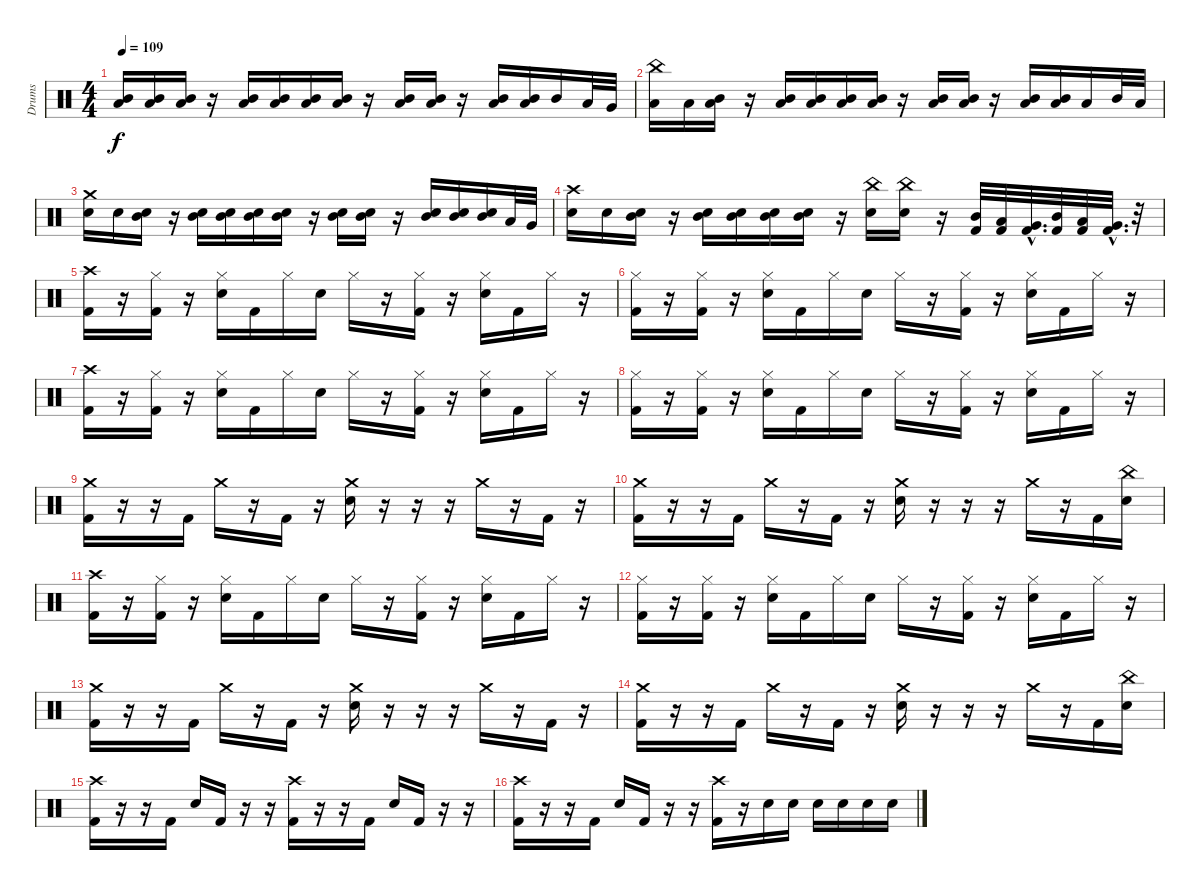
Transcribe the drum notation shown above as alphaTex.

\track ("Drums" "Drums") {instrument percussion}
\staff {score}
\articulation defaults
\ts (4 4)
\tempo 109
\clef neutral
\ks c
("Mid Tom (hit)" "Low Tom (hit)").16{dy f} ("Mid Tom (hit)" "Low Tom (hit)").16 ("Mid Tom (hit)" "Low Tom (hit)").16 r.16 ("Mid Tom (hit)" "Low Tom (hit)").16 ("Mid Tom (hit)" "Low Tom (hit)").16 ("Mid Tom (hit)" "Low Tom (hit)").16 ("Mid Tom (hit)" "Low Tom (hit)").16 r.16 ("Mid Tom (hit)" "Low Tom (hit)").16 ("Mid Tom (hit)" "Low Tom (hit)").16 r.16 ("Mid Tom (hit)" "Low Tom (hit)").16 ("Mid Tom (hit)" "Low Tom (hit)").16 "Mid Tom (hit)".16 "Low Tom (hit)".32 "Very Low Tom (hit)".32 |
("China (hit)" "Low Tom (hit)").16 "Low Tom (hit)".16 ("Mid Tom (hit)" "Low Tom (hit)").16 r.16 ("Mid Tom (hit)" "Low Tom (hit)").16 ("Mid Tom (hit)" "Low Tom (hit)").16 ("Mid Tom (hit)" "Low Tom (hit)").16 ("Mid Tom (hit)" "Low Tom (hit)").16 r.16 ("Mid Tom (hit)" "Low Tom (hit)").16 ("Mid Tom (hit)" "Low Tom (hit)").16 r.16 ("Mid Tom (hit)" "Low Tom (hit)").16 ("Mid Tom (hit)" "Low Tom (hit)").16 "Low Tom (hit)".16 "Mid Tom (hit)".32 "Low Tom (hit)".32 |
("Crash medium (hit)" "Snare (hit) 2").16 "Snare (hit) 2".16 ("Mid Tom (hit)" "Snare (hit) 2").16 r.16 ("Mid Tom (hit)" "Snare (hit) 2").16 ("Mid Tom (hit)" "Snare (hit) 2").16 ("Mid Tom (hit)" "Snare (hit) 2").16 ("Mid Tom (hit)" "Snare (hit) 2").16 r.16 ("Mid Tom (hit)" "Snare (hit) 2").16 ("Mid Tom (hit)" "Snare (hit) 2").16 r.16 ("Mid Tom (hit)" "Snare (hit) 2").16 ("Mid Tom (hit)" "Snare (hit) 2").16 ("Mid Tom (hit)" "Snare (hit) 2").16 "Low Tom (hit)".32 "Very Low Tom (hit)".32 |
("Crash high (hit)" "Snare (hit) 2").16 "Snare (hit) 2".16 ("Mid Tom (hit)" "Snare (hit) 2").16 r.16 ("Mid Tom (hit)" "Snare (hit) 2").16 ("Mid Tom (hit)" "Snare (hit) 2").16 ("Mid Tom (hit)" "Snare (hit) 2").16 ("Mid Tom (hit)" "Snare (hit) 2").16 r.16 ("China (hit)" "Snare (hit) 2").16 ("China (hit)" "Snare (hit) 2").16 r.16 ("Mid Tom (hit)" "Kick (hit) 2").32 ("Low Tom (hit)" "Kick (hit) 2").32 ("Very Low Tom (hit)"{hac} "Kick (hit) 2"{hac}).32{d} ("Mid Tom (hit)" "Kick (hit) 2").32 ("Low Tom (hit)" "Kick (hit) 2").32 ("Very Low Tom (hit)"{hac} "Kick (hit) 2"{hac}).32{d} r.32 |
("Crash high (hit)" "Kick (hit) 2").16 r.16 ("Hi-Hat (closed)" "Kick (hit) 2").16 r.16 ("Hi-Hat (closed)" "Snare (hit) 2").16 "Kick (hit) 2".16 "Hi-Hat (closed)".16 "Snare (hit) 2".16 "Hi-Hat (closed)".16 r.16 ("Hi-Hat (closed)" "Kick (hit) 2").16 r.16 ("Hi-Hat (closed)" "Snare (hit) 2").16 "Kick (hit) 2".16 "Hi-Hat (closed)".16 r.16 |
("Hi-Hat (closed)" "Kick (hit) 2").16 r.16 ("Hi-Hat (closed)" "Kick (hit) 2").16 r.16 ("Hi-Hat (closed)" "Snare (hit) 2").16 "Kick (hit) 2".16 "Hi-Hat (closed)".16 "Snare (hit) 2".16 "Hi-Hat (closed)".16 r.16 ("Hi-Hat (closed)" "Kick (hit) 2").16 r.16 ("Hi-Hat (closed)" "Snare (hit) 2").16 "Kick (hit) 2".16 "Hi-Hat (closed)".16 r.16 |
("Crash high (hit)" "Kick (hit) 2").16 r.16 ("Hi-Hat (closed)" "Kick (hit) 2").16 r.16 ("Hi-Hat (closed)" "Snare (hit) 2").16 "Kick (hit) 2".16 "Hi-Hat (closed)".16 "Snare (hit) 2".16 "Hi-Hat (closed)".16 r.16 ("Hi-Hat (closed)" "Kick (hit) 2").16 r.16 ("Hi-Hat (closed)" "Snare (hit) 2").16 "Kick (hit) 2".16 "Hi-Hat (closed)".16 r.16 |
("Hi-Hat (closed)" "Kick (hit) 2").16 r.16 ("Hi-Hat (closed)" "Kick (hit) 2").16 r.16 ("Hi-Hat (closed)" "Snare (hit) 2").16 "Kick (hit) 2".16 "Hi-Hat (closed)".16 "Snare (hit) 2".16 "Hi-Hat (closed)".16 r.16 ("Hi-Hat (closed)" "Kick (hit) 2").16 r.16 ("Hi-Hat (closed)" "Snare (hit) 2").16 "Kick (hit) 2".16 "Hi-Hat (closed)".16 r.16 |
("Crash medium (hit)" "Kick (hit) 2").16 r.16 r.16 "Kick (hit) 2".16 "Crash medium (hit)".16 r.16 "Kick (hit) 2".16 r.16 ("Crash medium (hit)" "Snare (hit) 2").16 r.16 r.16 r.16 "Crash medium (hit)".16 r.16 "Kick (hit) 2".16 r.16 |
("Crash medium (hit)" "Kick (hit) 2").16 r.16 r.16 "Kick (hit) 2".16 "Crash medium (hit)".16 r.16 "Kick (hit) 2".16 r.16 ("Crash medium (hit)" "Snare (hit) 2").16 r.16 r.16 r.16 "Crash medium (hit)".16 r.16 "Kick (hit) 2".16 ("China (hit)" "Snare (hit) 2").16 |
("Crash high (hit)" "Kick (hit) 2").16 r.16 ("Hi-Hat (closed)" "Kick (hit) 2").16 r.16 ("Hi-Hat (closed)" "Snare (hit) 2").16 "Kick (hit) 2".16 "Hi-Hat (closed)".16 "Snare (hit) 2".16 "Hi-Hat (closed)".16 r.16 ("Hi-Hat (closed)" "Kick (hit) 2").16 r.16 ("Hi-Hat (closed)" "Snare (hit) 2").16 "Kick (hit) 2".16 "Hi-Hat (closed)".16 r.16 |
("Hi-Hat (closed)" "Kick (hit) 2").16 r.16 ("Hi-Hat (closed)" "Kick (hit) 2").16 r.16 ("Hi-Hat (closed)" "Snare (hit) 2").16 "Kick (hit) 2".16 "Hi-Hat (closed)".16 "Snare (hit) 2".16 "Hi-Hat (closed)".16 r.16 ("Hi-Hat (closed)" "Kick (hit) 2").16 r.16 ("Hi-Hat (closed)" "Snare (hit) 2").16 "Kick (hit) 2".16 "Hi-Hat (closed)".16 r.16 |
("Crash medium (hit)" "Kick (hit) 2").16 r.16 r.16 "Kick (hit) 2".16 "Crash medium (hit)".16 r.16 "Kick (hit) 2".16 r.16 ("Crash medium (hit)" "Snare (hit) 2").16 r.16 r.16 r.16 "Crash medium (hit)".16 r.16 "Kick (hit) 2".16 r.16 |
("Crash medium (hit)" "Kick (hit) 2").16 r.16 r.16 "Kick (hit) 2".16 "Crash medium (hit)".16 r.16 "Kick (hit) 2".16 r.16 ("Crash medium (hit)" "Snare (hit) 2").16 r.16 r.16 r.16 "Crash medium (hit)".16 r.16 "Kick (hit) 2".16 ("China (hit)" "Snare (hit) 2").16 |
("Crash high (hit)" "Kick (hit) 2").16 r.16 r.16 "Kick (hit) 2".16 "Snare (hit) 2"{tr (38 32)}.16 "Kick (hit) 2".16 r.16 r.16 ("Crash high (hit)" "Kick (hit) 2").16 r.16 r.16 "Kick (hit) 2".16 "Snare (hit) 2"{tr (38 32)}.16 "Kick (hit) 2".16 r.16 r.16 |
("Crash high (hit)" "Kick (hit) 2").16 r.16 r.16 "Kick (hit) 2".16 "Snare (hit) 2"{tr (38 32)}.16 "Kick (hit) 2".16 r.16 r.16 ("Crash high (hit)" "Kick (hit) 2").16 r.16 "Snare (hit) 2".16 "Snare (hit) 2".16 "Snare (hit) 2".16 "Snare (hit) 2".16 "Snare (hit) 2".16 "Snare (hit) 2".16
